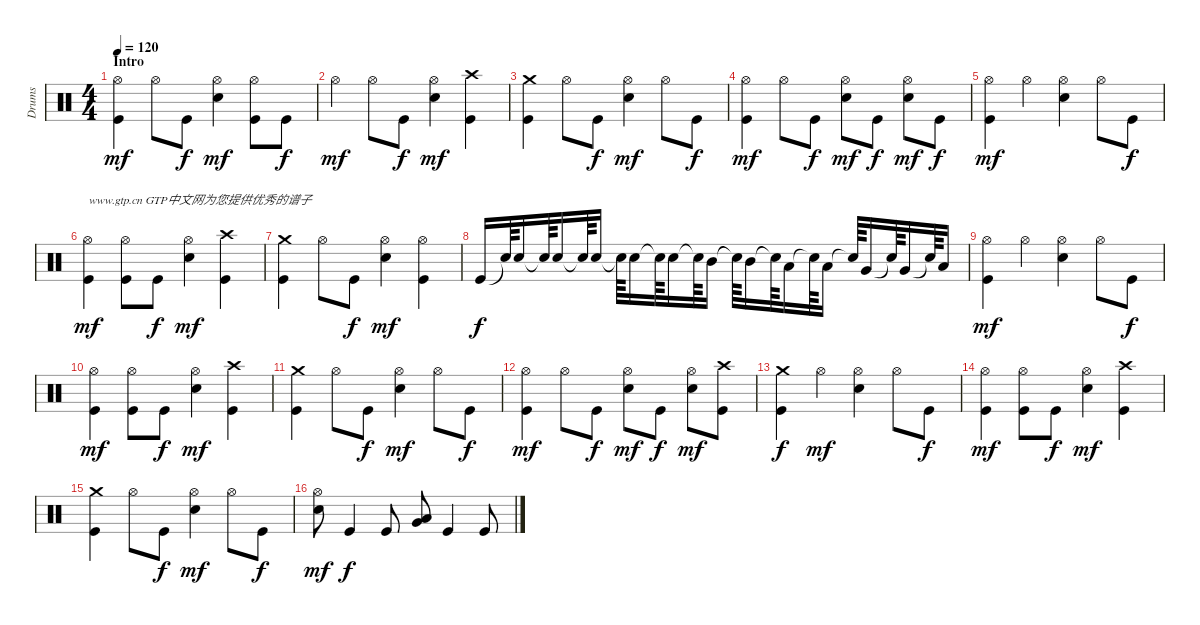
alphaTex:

\track ("Drums" "Drums") {instrument percussion}
\staff {score}
\articulation defaults
\ts (4 4)
\section ("" "Intro")
\tempo 120
\clef neutral
\ks c
("Hi-Hat (open)" "Kick (hit)").4{dy mf} "Hi-Hat (open)".8 "Kick (hit)".8{dy f} ("Hi-Hat (open)" "Electric Snare (hit)").4{dy mf} ("Hi-Hat (open)" "Kick (hit)").8 "Kick (hit)".8{dy f} |
"Hi-Hat (open)".4{dy mf} "Hi-Hat (open)".8 "Kick (hit)".8{dy f} ("Hi-Hat (open)" "Electric Snare (hit)").4{dy mf} ("Crash high (hit)" "Kick (hit)").4 |
("Crash medium (hit)" "Kick (hit)").4 "Hi-Hat (open)".8 "Kick (hit)".8{dy f} ("Hi-Hat (open)" "Electric Snare (hit)").4{dy mf} "Hi-Hat (open)".8 "Kick (hit)".8{dy f} |
("Hi-Hat (open)" "Kick (hit)").4{dy mf} "Hi-Hat (open)".8 "Kick (hit)".8{dy f} ("Hi-Hat (open)" "Electric Snare (hit)").8{dy mf} "Kick (hit)".8{dy f} ("Hi-Hat (open)" "Electric Snare (hit)").8{dy mf} "Kick (hit)".8{dy f} |
("Hi-Hat (open)" "Kick (hit)").4{dy mf} "Hi-Hat (open)".4 ("Hi-Hat (open)" "Electric Snare (hit)").4 "Hi-Hat (open)".8 "Kick (hit)".8{dy f} |
("Hi-Hat (open)" "Kick (hit)").4{txt "www.gtp.cn GTP中文网为您提供优秀的谱子" dy mf} ("Hi-Hat (open)" "Kick (hit)").8 "Kick (hit)".8{dy f} ("Hi-Hat (open)" "Electric Snare (hit)").4{dy mf} ("Crash high (hit)" "Kick (hit)").4 |
("Crash medium (hit)" "Kick (hit)").4 "Hi-Hat (open)".8 "Kick (hit)".8{dy f} ("Hi-Hat (open)" "Electric Snare (hit)").4{dy mf} ("Hi-Hat (open)" "Kick (hit)").4 |
"Kick (hit)".16{dy f} "Snare (hit)"{t}.64 "Electric Snare (hit)".16 "Snare (hit)"{t}.64 "Electric Snare (hit)".16 "Snare (hit)"{t}.64 "Electric Snare (hit)".16 "Snare (hit)"{t}.64 "Electric Snare (hit)".16 "Snare (hit)"{t}.64 "Electric Snare (hit)".16 "Snare (hit)"{t}.64 "Mid Tom (hit)".16 "Snare (hit)"{t}.64 "Mid Tom (hit)".16 "Snare (hit)"{t}.64 "Low Tom (hit)".16 "Snare (hit)"{t}.64 "Low Tom (hit)".16 "Snare (hit)"{t}.64 "Very Low Tom (hit)".16 "Snare (hit)"{t}.64 "Very Low Tom (hit)".16 "Snare (hit)"{t}.64 "Low Floor Tom (hit)".16 |
("Hi-Hat (open)" "Kick (hit)").4{dy mf} "Hi-Hat (open)".4 ("Hi-Hat (open)" "Electric Snare (hit)").4 "Hi-Hat (open)".8 "Kick (hit)".8{dy f} |
("Hi-Hat (open)" "Kick (hit)").4{dy mf} ("Hi-Hat (open)" "Kick (hit)").8 "Kick (hit)".8{dy f} ("Hi-Hat (open)" "Electric Snare (hit)").4{dy mf} ("Crash high (hit)" "Kick (hit)").4 |
("Crash medium (hit)" "Kick (hit)").4 "Hi-Hat (open)".8 "Kick (hit)".8{dy f} ("Hi-Hat (open)" "Electric Snare (hit)").4{dy mf} "Hi-Hat (open)".8 "Kick (hit)".8{dy f} |
("Hi-Hat (open)" "Kick (hit)").4{dy mf} "Hi-Hat (open)".8 "Kick (hit)".8{dy f} ("Hi-Hat (open)" "Electric Snare (hit)").8{dy mf} "Kick (hit)".8{dy f} ("Hi-Hat (open)" "Electric Snare (hit)").8{dy mf} ("Crash high (hit)" "Kick (hit)").8 |
("Crash medium (hit)" "Kick (hit)").4{dy f} "Hi-Hat (open)".4{dy mf} ("Hi-Hat (open)" "Electric Snare (hit)").4 "Hi-Hat (open)".8 "Kick (hit)".8{dy f} |
("Hi-Hat (open)" "Kick (hit)").4{dy mf} ("Hi-Hat (open)" "Kick (hit)").8 "Kick (hit)".8{dy f} ("Hi-Hat (open)" "Electric Snare (hit)").4{dy mf} ("Crash high (hit)" "Kick (hit)").4 |
("Crash medium (hit)" "Kick (hit)").4 "Hi-Hat (open)".8 "Kick (hit)".8{dy f} ("Hi-Hat (open)" "Electric Snare (hit)").4{dy mf} "Hi-Hat (open)".8 "Kick (hit)".8{dy f} |
("Hi-Hat (open)" "Electric Snare (hit)").8{dy mf} "Kick (hit)".4{dy f} "Kick (hit)".8 ("Low Tom (hit)" "Very Low Tom (hit)").8 "Kick (hit)".4 "Kick (hit)".8
